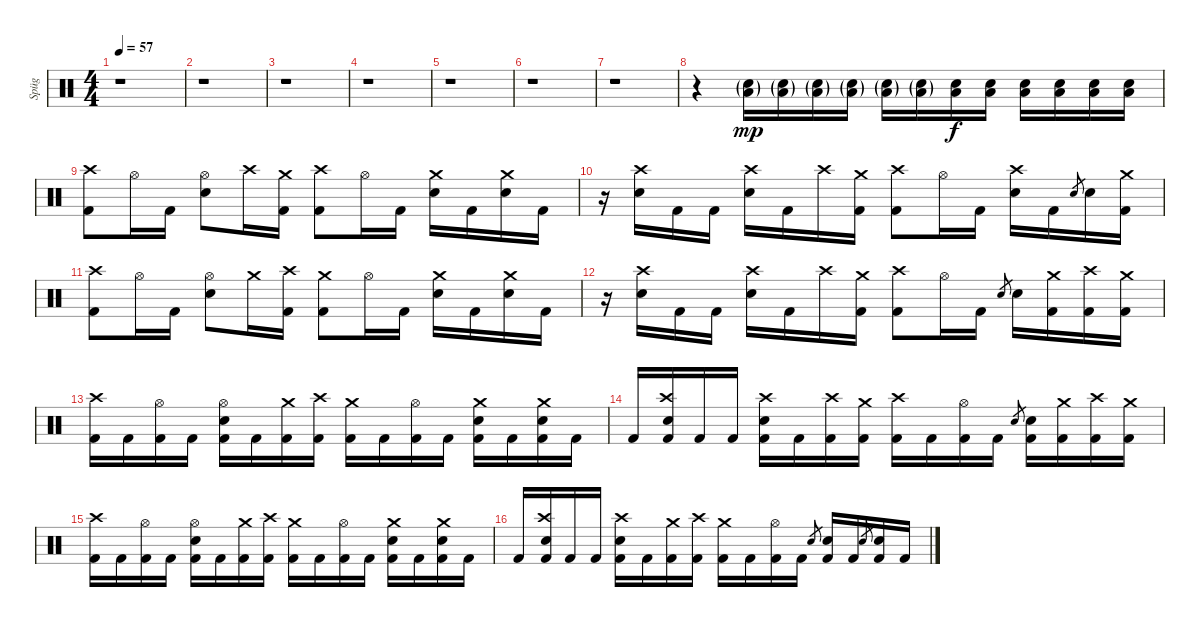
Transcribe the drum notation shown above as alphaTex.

\track ("Spüg" "Spüg") {instrument percussion}
\staff {score}
\articulation defaults
\ts (4 4)
\tempo 57
\clef neutral
\ks c
r.1{dy f} |
r.1 |
r.1 |
r.1 |
r.1 |
r.1 |
r.1 |
r.4 ("Electric Snare (hit)"{g} "Low Floor Tom (hit)"{g}).16{dy mp} ("Electric Snare (hit)"{g} "Low Floor Tom (hit)"{g}).16 ("Electric Snare (hit)"{g} "Low Floor Tom (hit)"{g}).16 ("Electric Snare (hit)"{g} "Low Floor Tom (hit)"{g}).16 ("Electric Snare (hit)"{g} "Low Floor Tom (hit)"{g}).16 ("Electric Snare (hit)"{g} "Low Floor Tom (hit)"{g}).16 ("Electric Snare (hit)" "Low Floor Tom (hit)").16{dy f} ("Electric Snare (hit)" "Low Floor Tom (hit)").16 ("Electric Snare (hit)" "Low Floor Tom (hit)").16 ("Electric Snare (hit)" "Low Floor Tom (hit)").16 ("Electric Snare (hit)" "Low Floor Tom (hit)").16 ("Electric Snare (hit)" "Low Floor Tom (hit)").16 |
("Crash high (hit)" "Kick (hit) 2").8 "Hi-Hat (open)".16 "Kick (hit) 2".16 ("Hi-Hat (open)" "Electric Snare (hit)").8 "Crash high (hit)".16 ("Crash medium (hit)" "Kick (hit) 2").16 ("Crash high (hit)" "Kick (hit) 2").8 "Hi-Hat (open)".16 "Kick (hit) 2".16 ("Crash medium (hit)" "Electric Snare (hit)").16 "Kick (hit) 2".16 ("Crash medium (hit)" "Electric Snare (hit)").16 "Kick (hit) 2".16 |
r.16 ("Crash high (hit)" "Electric Snare (hit)").16 "Kick (hit) 2".16 "Kick (hit) 2".16 ("Crash high (hit)" "Electric Snare (hit)").16 "Kick (hit) 2".16 "Crash high (hit)".16 ("Crash medium (hit)" "Kick (hit) 2").16 ("Crash high (hit)" "Kick (hit) 2").8 "Hi-Hat (open)".16 "Kick (hit) 2".16 ("Crash high (hit)" "Electric Snare (hit)").16 "Kick (hit) 2".16 "Electric Snare (hit)".8{gr} "Electric Snare (hit)".16 ("Crash medium (hit)" "Kick (hit) 2").16 |
("Crash high (hit)" "Kick (hit) 2").8 "Hi-Hat (open)".16 "Kick (hit) 2".16 ("Hi-Hat (open)" "Electric Snare (hit)").8 "Crash medium (hit)".16 ("Crash high (hit)" "Kick (hit) 2").16 ("Crash medium (hit)" "Kick (hit) 2").8 "Hi-Hat (open)".16 "Kick (hit) 2".16 ("Crash medium (hit)" "Electric Snare (hit)").16 "Kick (hit) 2".16 ("Crash medium (hit)" "Electric Snare (hit)").16 "Kick (hit) 2".16 |
r.16 ("Crash high (hit)" "Electric Snare (hit)").16 "Kick (hit) 2".16 "Kick (hit) 2".16 ("Crash high (hit)" "Electric Snare (hit)").16 "Kick (hit) 2".16 "Crash high (hit)".16 ("Crash medium (hit)" "Kick (hit) 2").16 ("Crash high (hit)" "Kick (hit) 2").8 "Hi-Hat (open)".16 "Kick (hit) 2".16 "Electric Snare (hit)".8{gr} "Electric Snare (hit)".16 ("Crash medium (hit)" "Kick (hit) 2").16 ("Crash high (hit)" "Kick (hit) 2").16 ("Crash medium (hit)" "Kick (hit) 2").16 |
("Crash high (hit)" "Kick (hit) 2").16 "Kick (hit) 2".16 ("Hi-Hat (open)" "Kick (hit) 2").16 "Kick (hit) 2".16 ("Hi-Hat (open)" "Electric Snare (hit)" "Kick (hit) 2").16 "Kick (hit) 2".16 ("Crash medium (hit)" "Kick (hit) 2").16 ("Crash high (hit)" "Kick (hit) 2").16 ("Crash medium (hit)" "Kick (hit) 2").16 "Kick (hit) 2".16 ("Hi-Hat (open)" "Kick (hit) 2").16 "Kick (hit) 2".16 ("Crash medium (hit)" "Electric Snare (hit)" "Kick (hit) 2").16 "Kick (hit) 2".16 ("Crash medium (hit)" "Electric Snare (hit)" "Kick (hit) 2").16 "Kick (hit) 2".16 |
"Kick (hit) 2".16 ("Crash high (hit)" "Electric Snare (hit)" "Kick (hit) 2").16 "Kick (hit) 2".16 "Kick (hit) 2".16 ("Crash high (hit)" "Electric Snare (hit)" "Kick (hit) 2").16 "Kick (hit) 2".16 ("Crash high (hit)" "Kick (hit) 2").16 ("Crash medium (hit)" "Kick (hit) 2").16 ("Crash high (hit)" "Kick (hit) 2").16 "Kick (hit) 2".16 ("Hi-Hat (open)" "Kick (hit) 2").16 "Kick (hit) 2".16 "Electric Snare (hit)".8{gr} ("Electric Snare (hit)" "Kick (hit) 2").16 ("Crash medium (hit)" "Kick (hit) 2").16 ("Crash high (hit)" "Kick (hit) 2").16 ("Crash medium (hit)" "Kick (hit) 2").16 |
("Crash high (hit)" "Kick (hit) 2").16 "Kick (hit) 2".16 ("Hi-Hat (open)" "Kick (hit) 2").16 "Kick (hit) 2".16 ("Hi-Hat (open)" "Electric Snare (hit)" "Kick (hit) 2").16 "Kick (hit) 2".16 ("Crash medium (hit)" "Kick (hit) 2").16 ("Crash high (hit)" "Kick (hit) 2").16 ("Crash medium (hit)" "Kick (hit) 2").16 "Kick (hit) 2".16 ("Hi-Hat (open)" "Kick (hit) 2").16 "Kick (hit) 2".16 ("Crash medium (hit)" "Electric Snare (hit)" "Kick (hit) 2").16 "Kick (hit) 2".16 ("Crash medium (hit)" "Electric Snare (hit)" "Kick (hit) 2").16 "Kick (hit) 2".16 |
"Kick (hit) 2".16 ("Crash high (hit)" "Electric Snare (hit)" "Kick (hit) 2").16 "Kick (hit) 2".16 "Kick (hit) 2".16 ("Crash high (hit)" "Electric Snare (hit)" "Kick (hit) 2").16 "Kick (hit) 2".16 ("Crash medium (hit)" "Kick (hit) 2").16 ("Crash high (hit)" "Kick (hit) 2").16 ("Crash medium (hit)" "Kick (hit) 2").16 "Kick (hit) 2".16 ("Hi-Hat (open)" "Kick (hit) 2").16 "Kick (hit) 2".16 "Electric Snare (hit)".8{gr} ("Electric Snare (hit)" "Kick (hit) 2").16 "Kick (hit) 2".16 "Electric Snare (hit)".8{gr} ("Electric Snare (hit)" "Kick (hit) 2").16 "Kick (hit) 2".16
